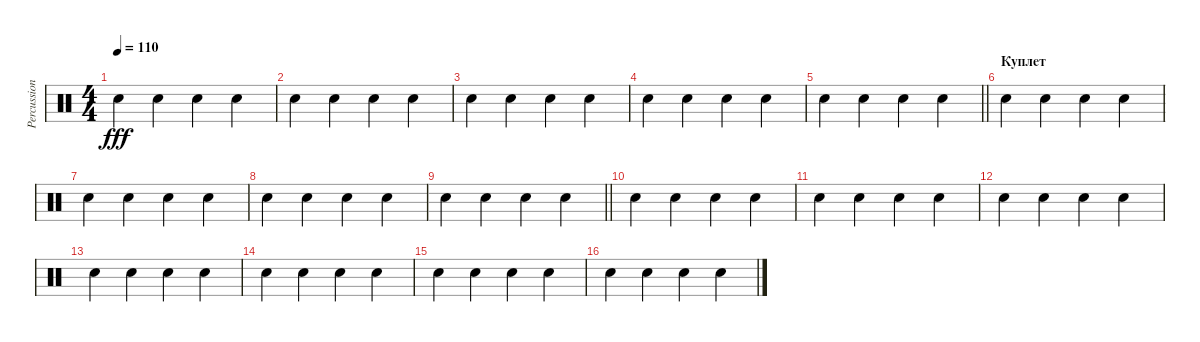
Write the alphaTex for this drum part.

\track ("Percussion" "Percussion") {mute instrument percussion}
\staff {score}
\articulation defaults
\ts (4 4)
\tempo 110
\clef neutral
\ks c "Snare (hit) 2".4{dy fff} "Snare (hit) 2".4 "Snare (hit) 2".4 "Snare (hit) 2".4
|
"Snare (hit) 2".4 "Snare (hit) 2".4 "Snare (hit) 2".4 "Snare (hit) 2".4 |
"Snare (hit) 2".4 "Snare (hit) 2".4 "Snare (hit) 2".4 "Snare (hit) 2".4 |
"Snare (hit) 2".4 "Snare (hit) 2".4 "Snare (hit) 2".4 "Snare (hit) 2".4 |
\barLineRight lightlight "Snare (hit) 2".4 "Snare (hit) 2".4 "Snare (hit) 2".4 "Snare (hit) 2".4
|
\section ("" "Куплет")
"Snare (hit) 2".4 "Snare (hit) 2".4 "Snare (hit) 2".4 "Snare (hit) 2".4 |
"Snare (hit) 2".4 "Snare (hit) 2".4 "Snare (hit) 2".4 "Snare (hit) 2".4 |
"Snare (hit) 2".4 "Snare (hit) 2".4 "Snare (hit) 2".4 "Snare (hit) 2".4 |
\barLineRight lightlight "Snare (hit) 2".4 "Snare (hit) 2".4 "Snare (hit) 2".4 "Snare (hit) 2".4
|
"Snare (hit) 2".4 "Snare (hit) 2".4 "Snare (hit) 2".4 "Snare (hit) 2".4 |
"Snare (hit) 2".4 "Snare (hit) 2".4 "Snare (hit) 2".4 "Snare (hit) 2".4 |
"Snare (hit) 2".4 "Snare (hit) 2".4 "Snare (hit) 2".4 "Snare (hit) 2".4 |
"Snare (hit) 2".4 "Snare (hit) 2".4 "Snare (hit) 2".4 "Snare (hit) 2".4 |
"Snare (hit) 2".4 "Snare (hit) 2".4 "Snare (hit) 2".4 "Snare (hit) 2".4 |
"Snare (hit) 2".4 "Snare (hit) 2".4 "Snare (hit) 2".4 "Snare (hit) 2".4 |
"Snare (hit) 2".4 "Snare (hit) 2".4 "Snare (hit) 2".4 "Snare (hit) 2".4
